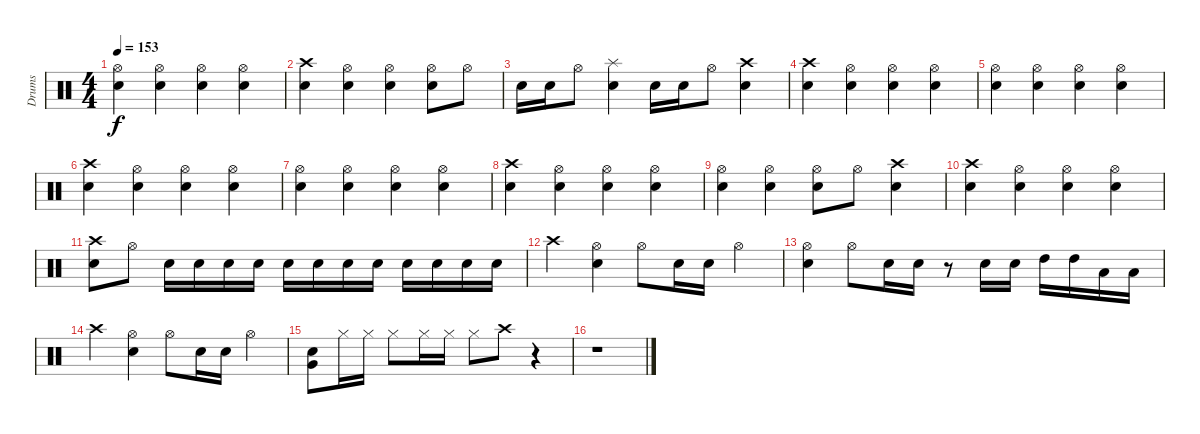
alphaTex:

\track ("Drums" "Drums") {instrument percussion}
\staff {score}
\articulation defaults
\ts (4 4)
\tempo 153
\clef neutral
\ks c
("Hi-Hat (open)" "Snare (hit) 2").4{dy f} ("Hi-Hat (open)" "Snare (hit) 2").4 ("Hi-Hat (open)" "Snare (hit) 2").4 ("Hi-Hat (open)" "Snare (hit) 2").4 |
("Crash high (hit)" "Snare (hit) 2").4 ("Hi-Hat (open)" "Snare (hit) 2").4 ("Hi-Hat (open)" "Snare (hit) 2").4 ("Hi-Hat (open)" "Snare (hit) 2").8 "Hi-Hat (open)".8 |
"Snare (hit) 2".16 "Snare (hit) 2".16 "Hi-Hat (open)".8 ("Splash (hit)" "Snare (hit) 2").4 "Snare (hit) 2".16 "Snare (hit) 2".16 "Hi-Hat (open)".8 ("Crash high (hit)" "Snare (hit) 2").4 |
("Crash high (hit)" "Snare (hit) 2").4 ("Hi-Hat (open)" "Snare (hit) 2").4 ("Hi-Hat (open)" "Snare (hit) 2").4 ("Hi-Hat (open)" "Snare (hit) 2").4 |
("Hi-Hat (open)" "Snare (hit) 2").4 ("Hi-Hat (open)" "Snare (hit) 2").4 ("Hi-Hat (open)" "Snare (hit) 2").4 ("Hi-Hat (open)" "Snare (hit) 2").4 |
("Crash high (hit)" "Snare (hit) 2").4 ("Hi-Hat (open)" "Snare (hit) 2").4 ("Hi-Hat (open)" "Snare (hit) 2").4 ("Hi-Hat (open)" "Snare (hit) 2").4 |
("Hi-Hat (open)" "Snare (hit) 2").4 ("Hi-Hat (open)" "Snare (hit) 2").4 ("Hi-Hat (open)" "Snare (hit) 2").4 ("Hi-Hat (open)" "Snare (hit) 2").4 |
("Crash high (hit)" "Snare (hit) 2").4 ("Hi-Hat (open)" "Snare (hit) 2").4 ("Hi-Hat (open)" "Snare (hit) 2").4 ("Hi-Hat (open)" "Snare (hit) 2").4 |
("Hi-Hat (open)" "Snare (hit) 2").4 ("Hi-Hat (open)" "Snare (hit) 2").4 ("Hi-Hat (open)" "Snare (hit) 2").8 "Hi-Hat (open)".8 ("Crash high (hit)" "Snare (hit) 2").4 |
("Crash high (hit)" "Snare (hit) 2").4 ("Hi-Hat (open)" "Snare (hit) 2").4 ("Hi-Hat (open)" "Snare (hit) 2").4 ("Hi-Hat (open)" "Snare (hit) 2").4 |
("Crash high (hit)" "Snare (hit) 2").8 "Hi-Hat (open)".8 "Snare (hit) 2".16 "Snare (hit) 2".16 "Snare (hit) 2".16 "Snare (hit) 2".16 "Snare (hit) 2".16 "Snare (hit) 2".16 "Snare (hit) 2".16 "Snare (hit) 2".16 "Snare (hit) 2".16 "Snare (hit) 2".16 "Snare (hit) 2".16 "Snare (hit) 2".16 |
"Crash high (hit)".4 ("Hi-Hat (open)" "Snare (hit) 2").4 "Hi-Hat (open)".8 "Snare (hit) 2".16 "Snare (hit) 2".16 "Hi-Hat (open)".4 |
("Hi-Hat (open)" "Snare (hit) 2").4 "Hi-Hat (open)".8 "Snare (hit) 2".16 "Snare (hit) 2".16 r.8 "Snare (hit) 2".16 "Snare (hit) 2".16 "High Tom (hit)".16 "High Tom (hit)".16 "Low Tom (hit)".16 "Low Tom (hit)".16 |
"Crash high (hit)".4 ("Hi-Hat (open)" "Snare (hit) 2").4 "Hi-Hat (open)".8 "Snare (hit) 2".16 "Snare (hit) 2".16 "Hi-Hat (open)".4 |
("Snare (hit) 2" "Very Low Tom (hit)").8 "Hi-Hat (closed)".16 "Hi-Hat (closed)".16 "Hi-Hat (closed)".8 "Hi-Hat (closed)".16 "Hi-Hat (closed)".16 "Hi-Hat (closed)".8 "Crash high (hit)".8 r.4 |
r.1
